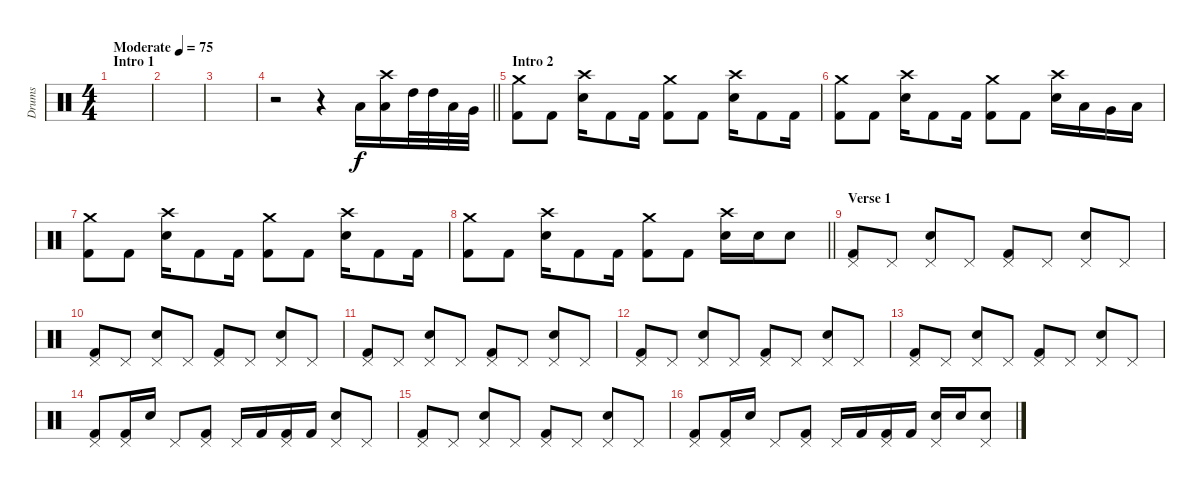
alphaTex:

\track ("Drums" "Drums") {instrument percussion}
\staff {score}
\articulation defaults
\ts (4 4)
\section ("" "Intro 1")
\tempo (75 "Moderate")
\clef neutral
\ks c
|
|
|
\barLineRight lightlight
r.2 r.4 "Low Tom (hit)".16 ("Crash high (hit)" "Low Tom (hit)").16 "High Tom (hit)".32 "High Tom (hit)".32 "Low Tom (hit)".32 "Very Low Tom (hit)".32 |
\section ("" "Intro 2")
("Crash medium (hit)" "Kick (hit) 2").8 "Kick (hit) 2".8 ("Crash high (hit)" "Snare (hit) 2").16 "Kick (hit) 2".8 "Kick (hit) 2".16 ("Crash medium (hit)" "Kick (hit) 2").8 "Kick (hit) 2".8 ("Crash high (hit)" "Snare (hit) 2").16 "Kick (hit) 2".8 "Kick (hit) 2".16 |
("Crash medium (hit)" "Kick (hit) 2").8 "Kick (hit) 2".8 ("Crash high (hit)" "Snare (hit) 2").16 "Kick (hit) 2".8 "Kick (hit) 2".16 ("Crash medium (hit)" "Kick (hit) 2").8 "Kick (hit) 2".8 ("Crash high (hit)" "Snare (hit) 2").16 "Low Tom (hit)".16 "Very Low Tom (hit)".16 "Low Floor Tom (hit)".16 |
("Crash medium (hit)" "Kick (hit) 2").8 "Kick (hit) 2".8 ("Crash high (hit)" "Snare (hit) 2").16 "Kick (hit) 2".8 "Kick (hit) 2".16 ("Crash medium (hit)" "Kick (hit) 2").8 "Kick (hit) 2".8 ("Crash high (hit)" "Snare (hit) 2").16 "Kick (hit) 2".8 "Kick (hit) 2".16 |
\barLineRight lightlight
("Crash medium (hit)" "Kick (hit) 2").8 "Kick (hit) 2".8 ("Crash high (hit)" "Snare (hit) 2").16 "Kick (hit) 2".8 "Kick (hit) 2".16 ("Crash medium (hit)" "Kick (hit) 2").8 "Kick (hit) 2".8 ("Crash high (hit)" "Snare (hit) 2").16 "Snare (hit) 2".16 "Snare (hit) 2".8 |
\section ("" "Verse 1")
("Pedal Hi-Hat (hit)" "Kick (hit) 2").8 "Pedal Hi-Hat (hit)".8 ("Pedal Hi-Hat (hit)" "Snare (hit) 2").8 "Pedal Hi-Hat (hit)".8 ("Pedal Hi-Hat (hit)" "Kick (hit) 2").8 "Pedal Hi-Hat (hit)".8 ("Pedal Hi-Hat (hit)" "Snare (hit) 2").8 "Pedal Hi-Hat (hit)".8 |
("Pedal Hi-Hat (hit)" "Kick (hit) 2").8 "Pedal Hi-Hat (hit)".8 ("Pedal Hi-Hat (hit)" "Snare (hit) 2").8 "Pedal Hi-Hat (hit)".8 ("Pedal Hi-Hat (hit)" "Kick (hit) 2").8 "Pedal Hi-Hat (hit)".8 ("Pedal Hi-Hat (hit)" "Snare (hit) 2").8 "Pedal Hi-Hat (hit)".8 |
("Pedal Hi-Hat (hit)" "Kick (hit) 2").8 "Pedal Hi-Hat (hit)".8 ("Pedal Hi-Hat (hit)" "Snare (hit) 2").8 "Pedal Hi-Hat (hit)".8 ("Pedal Hi-Hat (hit)" "Kick (hit) 2").8 "Pedal Hi-Hat (hit)".8 ("Pedal Hi-Hat (hit)" "Snare (hit) 2").8 "Pedal Hi-Hat (hit)".8 |
("Pedal Hi-Hat (hit)" "Kick (hit) 2").8 "Pedal Hi-Hat (hit)".8 ("Pedal Hi-Hat (hit)" "Snare (hit) 2").8 "Pedal Hi-Hat (hit)".8 ("Pedal Hi-Hat (hit)" "Kick (hit) 2").8 "Pedal Hi-Hat (hit)".8 ("Pedal Hi-Hat (hit)" "Snare (hit) 2").8 "Pedal Hi-Hat (hit)".8 |
("Pedal Hi-Hat (hit)" "Kick (hit) 2").8 "Pedal Hi-Hat (hit)".8 ("Pedal Hi-Hat (hit)" "Snare (hit) 2").8 "Pedal Hi-Hat (hit)".8 ("Pedal Hi-Hat (hit)" "Kick (hit) 2").8 "Pedal Hi-Hat (hit)".8 ("Pedal Hi-Hat (hit)" "Snare (hit) 2").8 "Pedal Hi-Hat (hit)".8 |
("Pedal Hi-Hat (hit)" "Kick (hit) 2").8 ("Pedal Hi-Hat (hit)" "Kick (hit) 2").16 "Snare (hit) 2".16 "Pedal Hi-Hat (hit)".8 ("Pedal Hi-Hat (hit)" "Kick (hit) 2").8 "Pedal Hi-Hat (hit)".16 "Kick (hit) 2".16 ("Pedal Hi-Hat (hit)" "Kick (hit) 2").16 "Kick (hit) 2".16 ("Pedal Hi-Hat (hit)" "Snare (hit) 2").8 "Pedal Hi-Hat (hit)".8 |
("Pedal Hi-Hat (hit)" "Kick (hit) 2").8 "Pedal Hi-Hat (hit)".8 ("Pedal Hi-Hat (hit)" "Snare (hit) 2").8 "Pedal Hi-Hat (hit)".8 ("Pedal Hi-Hat (hit)" "Kick (hit) 2").8 "Pedal Hi-Hat (hit)".8 ("Pedal Hi-Hat (hit)" "Snare (hit) 2").8 "Pedal Hi-Hat (hit)".8 |
("Pedal Hi-Hat (hit)" "Kick (hit) 2").8 ("Pedal Hi-Hat (hit)" "Kick (hit) 2").16 "Snare (hit) 2".16 "Pedal Hi-Hat (hit)".8 ("Pedal Hi-Hat (hit)" "Kick (hit) 2").8 "Pedal Hi-Hat (hit)".16 "Kick (hit) 2".16 ("Pedal Hi-Hat (hit)" "Kick (hit) 2").16 "Kick (hit) 2".16 ("Pedal Hi-Hat (hit)" "Snare (hit) 2").16 "Snare (hit) 2".16 ("Pedal Hi-Hat (hit)" "Snare (hit) 2").8
